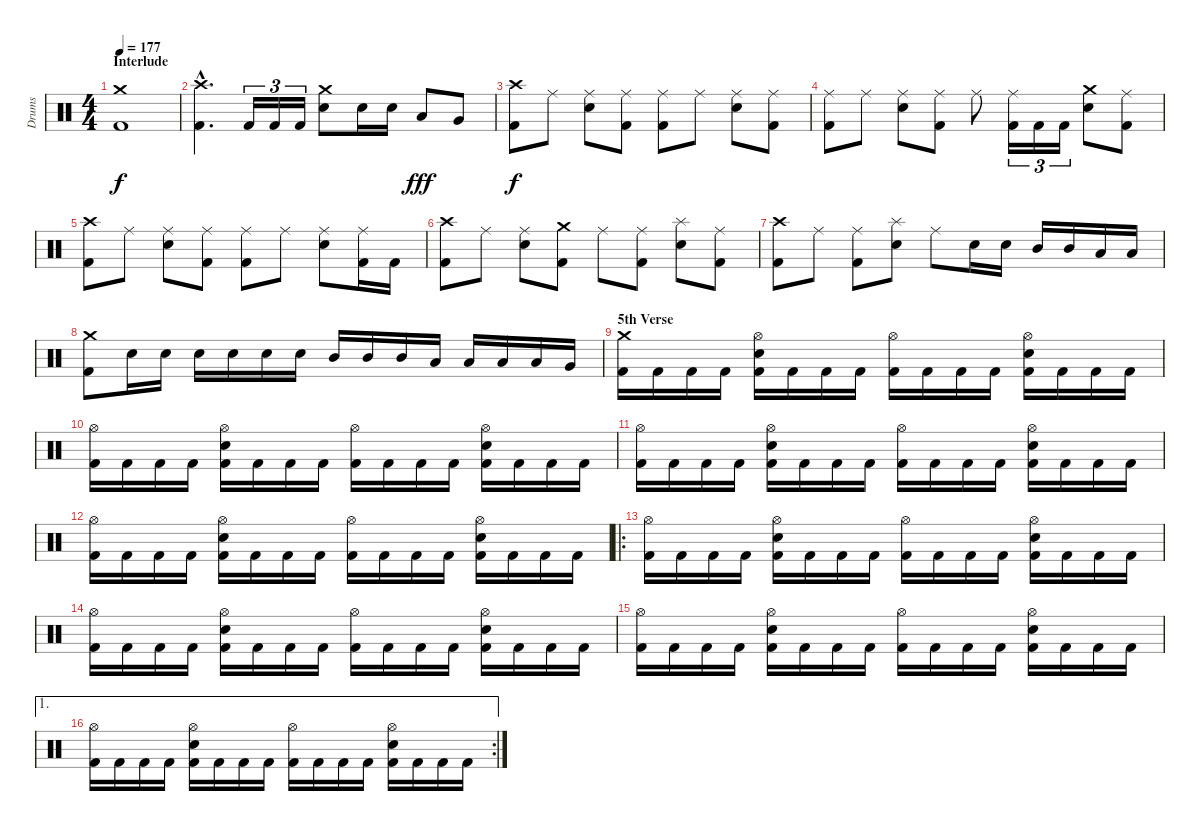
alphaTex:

\track ("Drums" "Drums") {instrument percussion}
\staff {score}
\articulation defaults
\ts (4 4)
\section ("" "Interlude")
\tempo 177
\clef neutral
\ks c
("Kick (hit) 2" "Crash medium (hit)").1{dy f} |
("Kick (hit) 2"{hac} "Crash high (hit)"{hac}).4{d} "Kick (hit) 2".16{tu (3 2)} "Kick (hit) 2".16{tu (3 2)} "Kick (hit) 2".16{tu (3 2)} ("Electric Snare (hit)" "Crash medium (hit)").8 "Electric Snare (hit)".16 "Electric Snare (hit)".16 "Low Tom (hit)".8{dy fff} "Very Low Tom (hit)".8 |
("Kick (hit) 2" "Crash high (hit)").8{dy f} "Ride (middle)".8 ("Electric Snare (hit)" "Ride (middle)").8 ("Kick (hit) 2" "Ride (middle)").8 ("Kick (hit) 2" "Ride (middle)").8 "Ride (middle)".8 ("Electric Snare (hit)" "Ride (middle)").8 ("Kick (hit) 2" "Ride (middle)").8 |
("Kick (hit) 2" "Ride (middle)").8 "Ride (middle)".8 ("Electric Snare (hit)" "Ride (middle)").8 ("Kick (hit) 2" "Ride (middle)").8 "Ride (middle)".8 ("Kick (hit) 2" "Ride (middle)").16{tu (3 2)} "Kick (hit) 2".16{tu (3 2)} "Kick (hit) 2".16{tu (3 2)} ("Electric Snare (hit)" "Crash medium (hit)").8 ("Kick (hit) 2" "Ride (middle)").8 |
("Kick (hit) 2" "Crash high (hit)").8 "Ride (middle)".8 ("Electric Snare (hit)" "Ride (middle)").8 ("Kick (hit) 2" "Ride (middle)").8 ("Kick (hit) 2" "Ride (middle)").8 "Ride (middle)".8 ("Electric Snare (hit)" "Ride (middle)").8 ("Kick (hit) 2" "Ride (middle)").16 "Kick (hit) 2".16 |
("Kick (hit) 2" "Crash high (hit)").8 "Ride (middle)".8 ("Electric Snare (hit)" "Ride (middle)").8 ("Kick (hit) 2" "Crash medium (hit)").8 "Ride (middle)".8 ("Kick (hit) 2" "Ride (middle)").8 ("Electric Snare (hit)" "Splash (hit)").8 ("Kick (hit) 2" "Ride (middle)").8 |
("Kick (hit) 2" "Crash high (hit)").8 "Ride (middle)".8 ("Kick (hit) 2" "Ride (middle)").8 ("Electric Snare (hit)" "Splash (hit)").8 "Ride (middle)".8 "Electric Snare (hit)".16 "Electric Snare (hit)".16 "Mid Tom (hit)".16 "Mid Tom (hit)".16 "Low Tom (hit)".16 "Low Tom (hit)".16 |
("Kick (hit) 2" "Crash medium (hit)").8 "Electric Snare (hit)".16 "Electric Snare (hit)".16 "Electric Snare (hit)".16 "Electric Snare (hit)".16 "Electric Snare (hit)".16 "Electric Snare (hit)".16 "Mid Tom (hit)".16 "Mid Tom (hit)".16 "Mid Tom (hit)".16 "Low Tom (hit)".16 "Low Tom (hit)".16 "Low Tom (hit)".16 "Low Tom (hit)".16 "Very Low Tom (hit)".16 |
\section ("" "5th Verse")
("Kick (hit) 2" "Crash medium (hit)").16 "Kick (hit) 2".16 "Kick (hit) 2".16 "Kick (hit) 2".16 ("Kick (hit) 2" "Electric Snare (hit)" "Hi-Hat (open)").16 "Kick (hit) 2".16 "Kick (hit) 2".16 "Kick (hit) 2".16 ("Kick (hit) 2" "Hi-Hat (open)").16 "Kick (hit) 2".16 "Kick (hit) 2".16 "Kick (hit) 2".16 ("Kick (hit) 2" "Electric Snare (hit)" "Hi-Hat (open)").16 "Kick (hit) 2".16 "Kick (hit) 2".16 "Kick (hit) 2".16 |
("Kick (hit) 2" "Hi-Hat (open)").16 "Kick (hit) 2".16 "Kick (hit) 2".16 "Kick (hit) 2".16 ("Kick (hit) 2" "Electric Snare (hit)" "Hi-Hat (open)").16 "Kick (hit) 2".16 "Kick (hit) 2".16 "Kick (hit) 2".16 ("Kick (hit) 2" "Hi-Hat (open)").16 "Kick (hit) 2".16 "Kick (hit) 2".16 "Kick (hit) 2".16 ("Kick (hit) 2" "Electric Snare (hit)" "Hi-Hat (open)").16 "Kick (hit) 2".16 "Kick (hit) 2".16 "Kick (hit) 2".16 |
("Kick (hit) 2" "Hi-Hat (open)").16 "Kick (hit) 2".16 "Kick (hit) 2".16 "Kick (hit) 2".16 ("Kick (hit) 2" "Electric Snare (hit)" "Hi-Hat (open)").16 "Kick (hit) 2".16 "Kick (hit) 2".16 "Kick (hit) 2".16 ("Kick (hit) 2" "Hi-Hat (open)").16 "Kick (hit) 2".16 "Kick (hit) 2".16 "Kick (hit) 2".16 ("Kick (hit) 2" "Electric Snare (hit)" "Hi-Hat (open)").16 "Kick (hit) 2".16 "Kick (hit) 2".16 "Kick (hit) 2".16 |
("Kick (hit) 2" "Hi-Hat (open)").16 "Kick (hit) 2".16 "Kick (hit) 2".16 "Kick (hit) 2".16 ("Kick (hit) 2" "Electric Snare (hit)" "Hi-Hat (open)").16 "Kick (hit) 2".16 "Kick (hit) 2".16 "Kick (hit) 2".16 ("Kick (hit) 2" "Hi-Hat (open)").16 "Kick (hit) 2".16 "Kick (hit) 2".16 "Kick (hit) 2".16 ("Kick (hit) 2" "Electric Snare (hit)" "Hi-Hat (open)").16 "Kick (hit) 2".16 "Kick (hit) 2".16 "Kick (hit) 2".16 |
\ro
("Kick (hit) 2" "Hi-Hat (open)").16 "Kick (hit) 2".16 "Kick (hit) 2".16 "Kick (hit) 2".16 ("Kick (hit) 2" "Electric Snare (hit)" "Hi-Hat (open)").16 "Kick (hit) 2".16 "Kick (hit) 2".16 "Kick (hit) 2".16 ("Kick (hit) 2" "Hi-Hat (open)").16 "Kick (hit) 2".16 "Kick (hit) 2".16 "Kick (hit) 2".16 ("Kick (hit) 2" "Electric Snare (hit)" "Hi-Hat (open)").16 "Kick (hit) 2".16 "Kick (hit) 2".16 "Kick (hit) 2".16 |
("Kick (hit) 2" "Hi-Hat (open)").16 "Kick (hit) 2".16 "Kick (hit) 2".16 "Kick (hit) 2".16 ("Kick (hit) 2" "Electric Snare (hit)" "Hi-Hat (open)").16 "Kick (hit) 2".16 "Kick (hit) 2".16 "Kick (hit) 2".16 ("Kick (hit) 2" "Hi-Hat (open)").16 "Kick (hit) 2".16 "Kick (hit) 2".16 "Kick (hit) 2".16 ("Kick (hit) 2" "Electric Snare (hit)" "Hi-Hat (open)").16 "Kick (hit) 2".16 "Kick (hit) 2".16 "Kick (hit) 2".16 |
("Kick (hit) 2" "Hi-Hat (open)").16 "Kick (hit) 2".16 "Kick (hit) 2".16 "Kick (hit) 2".16 ("Kick (hit) 2" "Electric Snare (hit)" "Hi-Hat (open)").16 "Kick (hit) 2".16 "Kick (hit) 2".16 "Kick (hit) 2".16 ("Kick (hit) 2" "Hi-Hat (open)").16 "Kick (hit) 2".16 "Kick (hit) 2".16 "Kick (hit) 2".16 ("Kick (hit) 2" "Electric Snare (hit)" "Hi-Hat (open)").16 "Kick (hit) 2".16 "Kick (hit) 2".16 "Kick (hit) 2".16 |
\ae 1
\rc 2
("Kick (hit) 2" "Hi-Hat (open)").16 "Kick (hit) 2".16 "Kick (hit) 2".16 "Kick (hit) 2".16 ("Kick (hit) 2" "Electric Snare (hit)" "Hi-Hat (open)").16 "Kick (hit) 2".16 "Kick (hit) 2".16 "Kick (hit) 2".16 ("Kick (hit) 2" "Hi-Hat (open)").16 "Kick (hit) 2".16 "Kick (hit) 2".16 "Kick (hit) 2".16 ("Kick (hit) 2" "Electric Snare (hit)" "Hi-Hat (open)").16 "Kick (hit) 2".16 "Kick (hit) 2".16 "Kick (hit) 2".16
